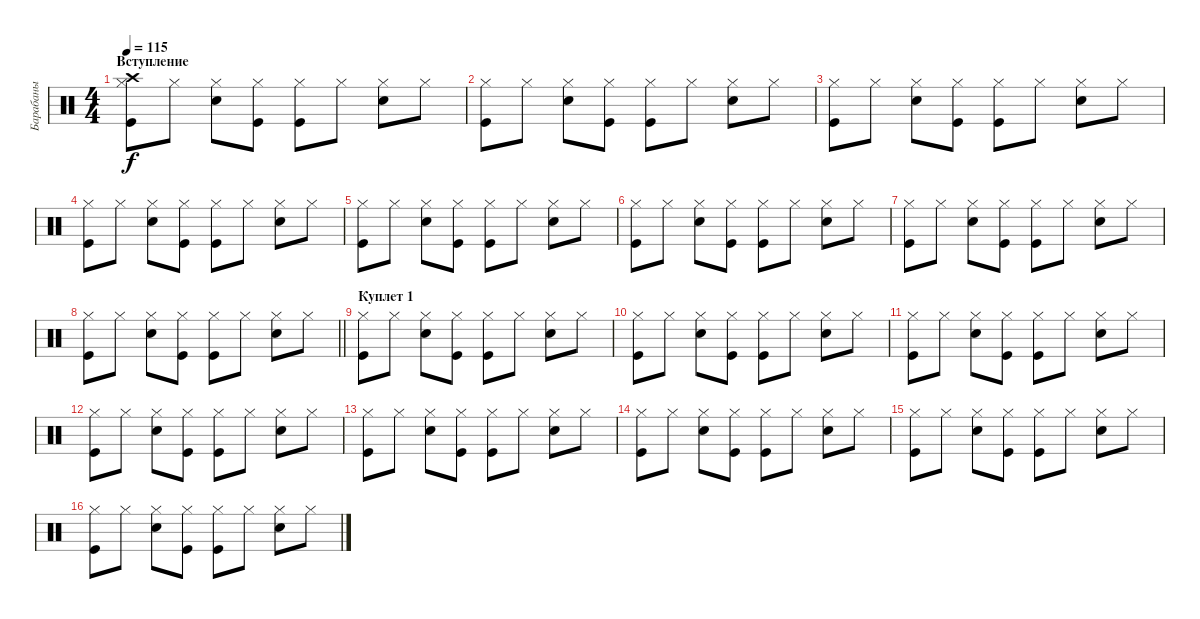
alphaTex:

\track ("Барабаны" "Барабаны") {instrument percussion}
\staff {score}
\articulation defaults
\ts (4 4)
\section ("" "Вступление")
\tempo 115
\clef neutral
\ks c
("Kick (hit)" "Hi-Hat (closed)" "Crash high (hit)").8{dy f} "Hi-Hat (closed)".8 ("Snare (hit) 2" "Hi-Hat (closed)").8 ("Kick (hit)" "Hi-Hat (closed)").8 ("Kick (hit)" "Hi-Hat (closed)").8 "Hi-Hat (closed)".8 ("Snare (hit) 2" "Hi-Hat (closed)").8 "Hi-Hat (closed)".8 |
("Kick (hit)" "Hi-Hat (closed)").8 "Hi-Hat (closed)".8 ("Snare (hit) 2" "Hi-Hat (closed)").8 ("Kick (hit)" "Hi-Hat (closed)").8 ("Kick (hit)" "Hi-Hat (closed)").8 "Hi-Hat (closed)".8 ("Snare (hit) 2" "Hi-Hat (closed)").8 "Hi-Hat (closed)".8 |
("Kick (hit)" "Hi-Hat (closed)").8 "Hi-Hat (closed)".8 ("Snare (hit) 2" "Hi-Hat (closed)").8 ("Kick (hit)" "Hi-Hat (closed)").8 ("Kick (hit)" "Hi-Hat (closed)").8 "Hi-Hat (closed)".8 ("Snare (hit) 2" "Hi-Hat (closed)").8 "Hi-Hat (closed)".8 |
("Kick (hit)" "Hi-Hat (closed)").8 "Hi-Hat (closed)".8 ("Snare (hit) 2" "Hi-Hat (closed)").8 ("Kick (hit)" "Hi-Hat (closed)").8 ("Kick (hit)" "Hi-Hat (closed)").8 "Hi-Hat (closed)".8 ("Snare (hit) 2" "Hi-Hat (closed)").8 "Hi-Hat (closed)".8 |
("Kick (hit)" "Hi-Hat (closed)").8 "Hi-Hat (closed)".8 ("Snare (hit) 2" "Hi-Hat (closed)").8 ("Kick (hit)" "Hi-Hat (closed)").8 ("Kick (hit)" "Hi-Hat (closed)").8 "Hi-Hat (closed)".8 ("Snare (hit) 2" "Hi-Hat (closed)").8 "Hi-Hat (closed)".8 |
("Kick (hit)" "Hi-Hat (closed)").8 "Hi-Hat (closed)".8 ("Snare (hit) 2" "Hi-Hat (closed)").8 ("Kick (hit)" "Hi-Hat (closed)").8 ("Kick (hit)" "Hi-Hat (closed)").8 "Hi-Hat (closed)".8 ("Snare (hit) 2" "Hi-Hat (closed)").8 "Hi-Hat (closed)".8 |
("Kick (hit)" "Hi-Hat (closed)").8 "Hi-Hat (closed)".8 ("Snare (hit) 2" "Hi-Hat (closed)").8 ("Kick (hit)" "Hi-Hat (closed)").8 ("Kick (hit)" "Hi-Hat (closed)").8 "Hi-Hat (closed)".8 ("Snare (hit) 2" "Hi-Hat (closed)").8 "Hi-Hat (closed)".8 |
\barLineRight lightlight
("Kick (hit)" "Hi-Hat (closed)").8 "Hi-Hat (closed)".8 ("Snare (hit) 2" "Hi-Hat (closed)").8 ("Kick (hit)" "Hi-Hat (closed)").8 ("Kick (hit)" "Hi-Hat (closed)").8 "Hi-Hat (closed)".8 ("Snare (hit) 2" "Hi-Hat (closed)").8 "Hi-Hat (closed)".8 |
\section ("" "Куплет 1")
("Kick (hit)" "Hi-Hat (closed)").8 "Hi-Hat (closed)".8 ("Snare (hit) 2" "Hi-Hat (closed)").8 ("Kick (hit)" "Hi-Hat (closed)").8 ("Kick (hit)" "Hi-Hat (closed)").8 "Hi-Hat (closed)".8 ("Snare (hit) 2" "Hi-Hat (closed)").8 "Hi-Hat (closed)".8 |
("Kick (hit)" "Hi-Hat (closed)").8 "Hi-Hat (closed)".8 ("Snare (hit) 2" "Hi-Hat (closed)").8 ("Kick (hit)" "Hi-Hat (closed)").8 ("Kick (hit)" "Hi-Hat (closed)").8 "Hi-Hat (closed)".8 ("Snare (hit) 2" "Hi-Hat (closed)").8 "Hi-Hat (closed)".8 |
("Kick (hit)" "Hi-Hat (closed)").8 "Hi-Hat (closed)".8 ("Snare (hit) 2" "Hi-Hat (closed)").8 ("Kick (hit)" "Hi-Hat (closed)").8 ("Kick (hit)" "Hi-Hat (closed)").8 "Hi-Hat (closed)".8 ("Snare (hit) 2" "Hi-Hat (closed)").8 "Hi-Hat (closed)".8 |
("Kick (hit)" "Hi-Hat (closed)").8 "Hi-Hat (closed)".8 ("Snare (hit) 2" "Hi-Hat (closed)").8 ("Kick (hit)" "Hi-Hat (closed)").8 ("Kick (hit)" "Hi-Hat (closed)").8 "Hi-Hat (closed)".8 ("Snare (hit) 2" "Hi-Hat (closed)").8 "Hi-Hat (closed)".8 |
("Kick (hit)" "Hi-Hat (closed)").8 "Hi-Hat (closed)".8 ("Snare (hit) 2" "Hi-Hat (closed)").8 ("Kick (hit)" "Hi-Hat (closed)").8 ("Kick (hit)" "Hi-Hat (closed)").8 "Hi-Hat (closed)".8 ("Snare (hit) 2" "Hi-Hat (closed)").8 "Hi-Hat (closed)".8 |
("Kick (hit)" "Hi-Hat (closed)").8 "Hi-Hat (closed)".8 ("Snare (hit) 2" "Hi-Hat (closed)").8 ("Kick (hit)" "Hi-Hat (closed)").8 ("Kick (hit)" "Hi-Hat (closed)").8 "Hi-Hat (closed)".8 ("Snare (hit) 2" "Hi-Hat (closed)").8 "Hi-Hat (closed)".8 |
("Kick (hit)" "Hi-Hat (closed)").8 "Hi-Hat (closed)".8 ("Snare (hit) 2" "Hi-Hat (closed)").8 ("Kick (hit)" "Hi-Hat (closed)").8 ("Kick (hit)" "Hi-Hat (closed)").8 "Hi-Hat (closed)".8 ("Snare (hit) 2" "Hi-Hat (closed)").8 "Hi-Hat (closed)".8 |
("Kick (hit)" "Hi-Hat (closed)").8 "Hi-Hat (closed)".8 ("Snare (hit) 2" "Hi-Hat (closed)").8 ("Kick (hit)" "Hi-Hat (closed)").8 ("Kick (hit)" "Hi-Hat (closed)").8 "Hi-Hat (closed)".8 ("Snare (hit) 2" "Hi-Hat (closed)").8 "Hi-Hat (closed)".8
